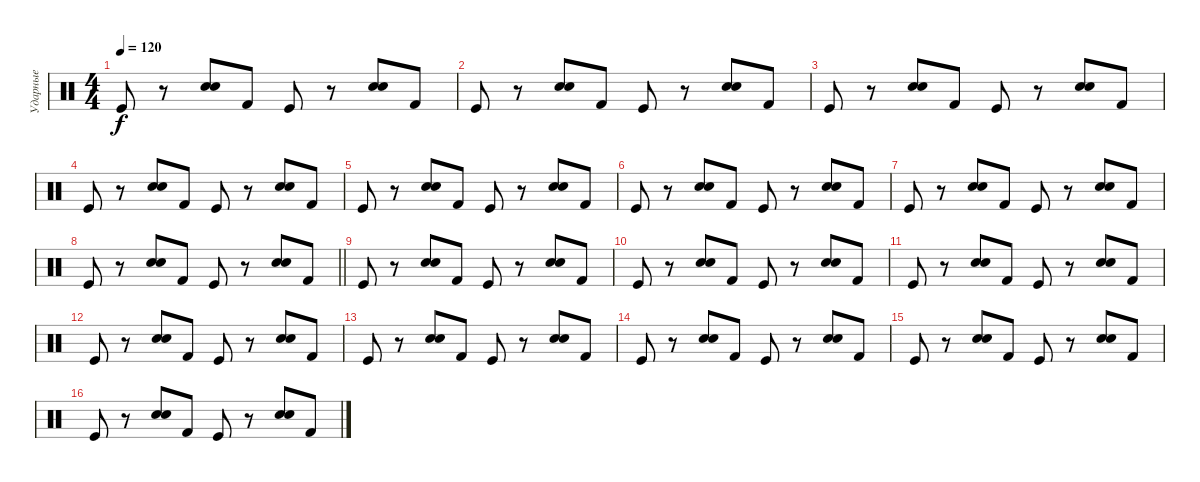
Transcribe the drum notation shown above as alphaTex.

\track ("Ударные" "Ударные") {instrument percussion}
\staff {score}
\articulation defaults
\ts (4 4)
\tempo 120
\clef neutral
\ks c "Kick (hit)".8{dy f}
r.8 ("Electric Snare (hit)" "Snare (hit) 2").8 "Kick (hit) 2".8 "Kick (hit)".8 r.8 ("Electric Snare (hit)" "Snare (hit) 2").8 "Kick (hit) 2".8 |
"Kick (hit)".8 r.8 ("Electric Snare (hit)" "Snare (hit) 2").8 "Kick (hit) 2".8 "Kick (hit)".8 r.8 ("Electric Snare (hit)" "Snare (hit) 2").8 "Kick (hit) 2".8 |
"Kick (hit)".8 r.8 ("Electric Snare (hit)" "Snare (hit) 2").8 "Kick (hit) 2".8 "Kick (hit)".8 r.8 ("Electric Snare (hit)" "Snare (hit) 2").8 "Kick (hit) 2".8 |
"Kick (hit)".8 r.8 ("Electric Snare (hit)" "Snare (hit) 2").8 "Kick (hit) 2".8 "Kick (hit)".8 r.8 ("Electric Snare (hit)" "Snare (hit) 2").8 "Kick (hit) 2".8 |
"Kick (hit)".8 r.8 ("Electric Snare (hit)" "Snare (hit) 2").8 "Kick (hit) 2".8 "Kick (hit)".8 r.8 ("Electric Snare (hit)" "Snare (hit) 2").8 "Kick (hit) 2".8 |
"Kick (hit)".8 r.8 ("Electric Snare (hit)" "Snare (hit) 2").8 "Kick (hit) 2".8 "Kick (hit)".8 r.8 ("Electric Snare (hit)" "Snare (hit) 2").8 "Kick (hit) 2".8 |
"Kick (hit)".8 r.8 ("Electric Snare (hit)" "Snare (hit) 2").8 "Kick (hit) 2".8 "Kick (hit)".8 r.8 ("Electric Snare (hit)" "Snare (hit) 2").8 "Kick (hit) 2".8 |
\barLineRight lightlight "Kick (hit)".8
r.8 ("Electric Snare (hit)" "Snare (hit) 2").8 "Kick (hit) 2".8 "Kick (hit)".8 r.8 ("Electric Snare (hit)" "Snare (hit) 2").8 "Kick (hit) 2".8 |
"Kick (hit)".8 r.8 ("Electric Snare (hit)" "Snare (hit) 2").8 "Kick (hit) 2".8 "Kick (hit)".8 r.8 ("Electric Snare (hit)" "Snare (hit) 2").8 "Kick (hit) 2".8 |
"Kick (hit)".8 r.8 ("Electric Snare (hit)" "Snare (hit) 2").8 "Kick (hit) 2".8 "Kick (hit)".8 r.8 ("Electric Snare (hit)" "Snare (hit) 2").8 "Kick (hit) 2".8 |
"Kick (hit)".8 r.8 ("Electric Snare (hit)" "Snare (hit) 2").8 "Kick (hit) 2".8 "Kick (hit)".8 r.8 ("Electric Snare (hit)" "Snare (hit) 2").8 "Kick (hit) 2".8 |
"Kick (hit)".8 r.8 ("Electric Snare (hit)" "Snare (hit) 2").8 "Kick (hit) 2".8 "Kick (hit)".8 r.8 ("Electric Snare (hit)" "Snare (hit) 2").8 "Kick (hit) 2".8 |
"Kick (hit)".8 r.8 ("Electric Snare (hit)" "Snare (hit) 2").8 "Kick (hit) 2".8 "Kick (hit)".8 r.8 ("Electric Snare (hit)" "Snare (hit) 2").8 "Kick (hit) 2".8 |
"Kick (hit)".8 r.8 ("Electric Snare (hit)" "Snare (hit) 2").8 "Kick (hit) 2".8 "Kick (hit)".8 r.8 ("Electric Snare (hit)" "Snare (hit) 2").8 "Kick (hit) 2".8 |
"Kick (hit)".8 r.8 ("Electric Snare (hit)" "Snare (hit) 2").8 "Kick (hit) 2".8 "Kick (hit)".8 r.8 ("Electric Snare (hit)" "Snare (hit) 2").8 "Kick (hit) 2".8 |
"Kick (hit)".8 r.8 ("Electric Snare (hit)" "Snare (hit) 2").8 "Kick (hit) 2".8 "Kick (hit)".8 r.8 ("Electric Snare (hit)" "Snare (hit) 2").8 "Kick (hit) 2".8
